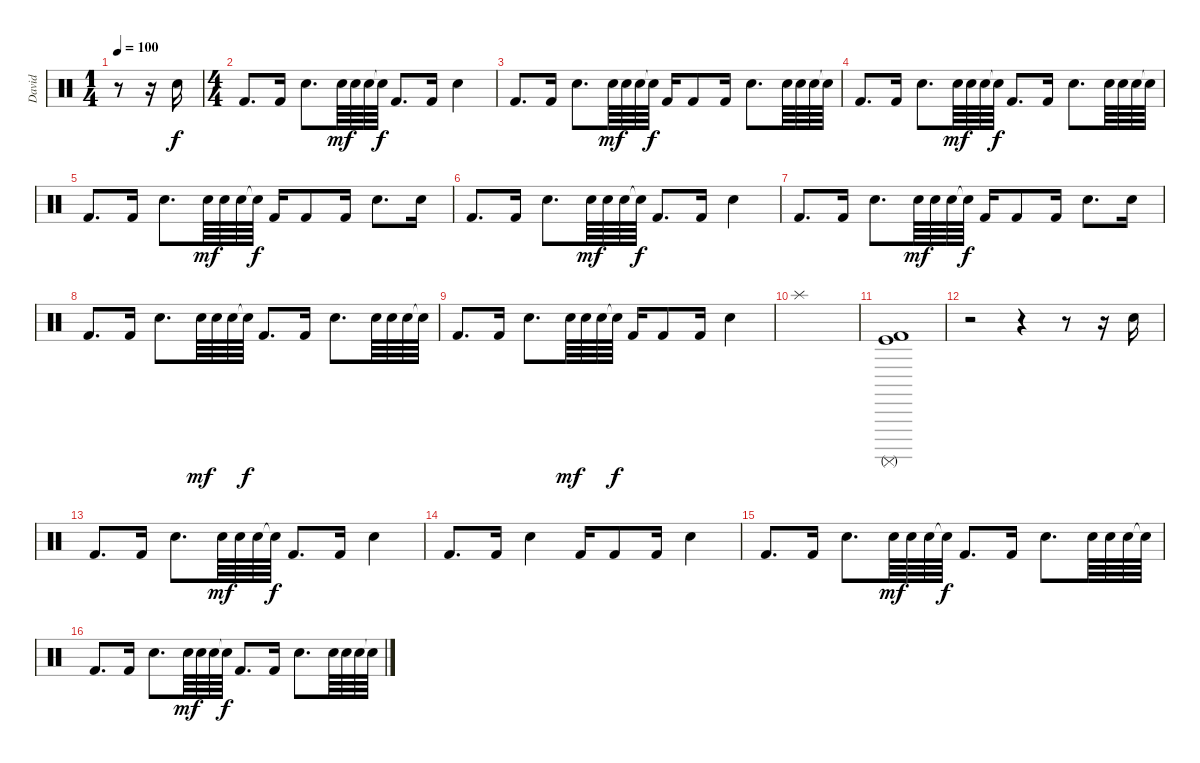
\track ("David" "David") {instrument percussion}
\staff {score}
\articulation defaults
\ts (1 4)
\tempo 100
\clef neutral
\ks c
r.8{dy f} r.16 "Snare (hit) 2".16 |
\ts (4 4)
"Kick (hit) 2".8{d} "Kick (hit) 2".16 "Snare (hit) 2".8{d} "Snare (hit) 2".64{dy mf} "Snare (hit) 2".64 "Snare (hit) 2".64 "Snare (hit)"{t}.64{dy f} "Kick (hit) 2".8{d} "Kick (hit) 2".16 "Snare (hit) 2".4 |
"Kick (hit) 2".8{d} "Kick (hit) 2".16 "Snare (hit) 2".8{d} "Snare (hit) 2".64{dy mf} "Snare (hit) 2".64 "Snare (hit) 2".64 "Snare (hit)"{t}.64{dy f} "Kick (hit) 2".16 "Kick (hit) 2".8 "Kick (hit) 2".16 "Snare (hit) 2".8{d} "Snare (hit) 2".64 "Snare (hit) 2".64 "Snare (hit) 2".64 "Snare (hit)"{t}.64 |
"Kick (hit) 2".8{d} "Kick (hit) 2".16 "Snare (hit) 2".8{d} "Snare (hit) 2".64{dy mf} "Snare (hit) 2".64 "Snare (hit) 2".64 "Snare (hit)"{t}.64{dy f} "Kick (hit) 2".8{d} "Kick (hit) 2".16 "Snare (hit) 2".8{d} "Snare (hit) 2".64 "Snare (hit) 2".64 "Snare (hit) 2".64 "Snare (hit)"{t}.64 |
"Kick (hit) 2".8{d} "Kick (hit) 2".16 "Snare (hit) 2".8{d} "Snare (hit) 2".64{dy mf} "Snare (hit) 2".64 "Snare (hit) 2".64 "Snare (hit)"{t}.64{dy f} "Kick (hit) 2".16 "Kick (hit) 2".8 "Kick (hit) 2".16 "Snare (hit) 2".8{d} "Snare (hit) 2".16 |
"Kick (hit) 2".8{d} "Kick (hit) 2".16 "Snare (hit) 2".8{d} "Snare (hit) 2".64{dy mf} "Snare (hit) 2".64 "Snare (hit) 2".64 "Snare (hit)"{t}.64{dy f} "Kick (hit) 2".8{d} "Kick (hit) 2".16 "Snare (hit) 2".4 |
"Kick (hit) 2".8{d} "Kick (hit) 2".16 "Snare (hit) 2".8{d} "Snare (hit) 2".64{dy mf} "Snare (hit) 2".64 "Snare (hit) 2".64 "Snare (hit)"{t}.64{dy f} "Kick (hit) 2".16 "Kick (hit) 2".8 "Kick (hit) 2".16 "Snare (hit) 2".8{d} "Snare (hit) 2".16 |
"Kick (hit) 2".8{d} "Kick (hit) 2".16 "Snare (hit) 2".8{d} "Snare (hit) 2".64{dy mf} "Snare (hit) 2".64 "Snare (hit) 2".64 "Snare (hit)"{t}.64{dy f} "Kick (hit) 2".8{d} "Kick (hit) 2".16 "Snare (hit) 2".8{d} "Snare (hit) 2".64 "Snare (hit) 2".64 "Snare (hit) 2".64 "Snare (hit)"{t}.64 |
"Kick (hit) 2".8{d} "Kick (hit) 2".16 "Snare (hit) 2".8{d} "Snare (hit) 2".64{dy mf} "Snare (hit) 2".64 "Snare (hit) 2".64 "Snare (hit)"{t}.64{dy f} "Kick (hit) 2".16 "Kick (hit) 2".8 "Kick (hit) 2".16 "Snare (hit) 2".4 |
"Splash (hit)".1 |
("Kick (hit)" "Kick (hit) 2" "Surdo (mute)").1 |
r.2 r.4 r.8 r.16 "Snare (hit) 2".16 |
"Kick (hit) 2".8{d} "Kick (hit) 2".16 "Snare (hit) 2".8{d} "Snare (hit) 2".64{dy mf} "Snare (hit) 2".64 "Snare (hit) 2".64 "Snare (hit)"{t}.64{dy f} "Kick (hit) 2".8{d} "Kick (hit) 2".16 "Snare (hit) 2".4 |
"Kick (hit) 2".8{d} "Kick (hit) 2".16 "Snare (hit) 2".4 "Kick (hit) 2".16 "Kick (hit) 2".8 "Kick (hit) 2".16 "Snare (hit) 2".4 |
"Kick (hit) 2".8{d} "Kick (hit) 2".16 "Snare (hit) 2".8{d} "Snare (hit) 2".64{dy mf} "Snare (hit) 2".64 "Snare (hit) 2".64 "Snare (hit)"{t}.64{dy f} "Kick (hit) 2".8{d} "Kick (hit) 2".16 "Snare (hit) 2".8{d} "Snare (hit) 2".64 "Snare (hit) 2".64 "Snare (hit) 2".64 "Snare (hit)"{t}.64 |
"Kick (hit) 2".8{d} "Kick (hit) 2".16 "Snare (hit) 2".8{d} "Snare (hit) 2".64{dy mf} "Snare (hit) 2".64 "Snare (hit) 2".64 "Snare (hit)"{t}.64{dy f} "Kick (hit) 2".8{d} "Kick (hit) 2".16 "Snare (hit) 2".8{d} "Snare (hit) 2".64 "Snare (hit) 2".64 "Snare (hit) 2".64 "Snare (hit)"{t}.64
